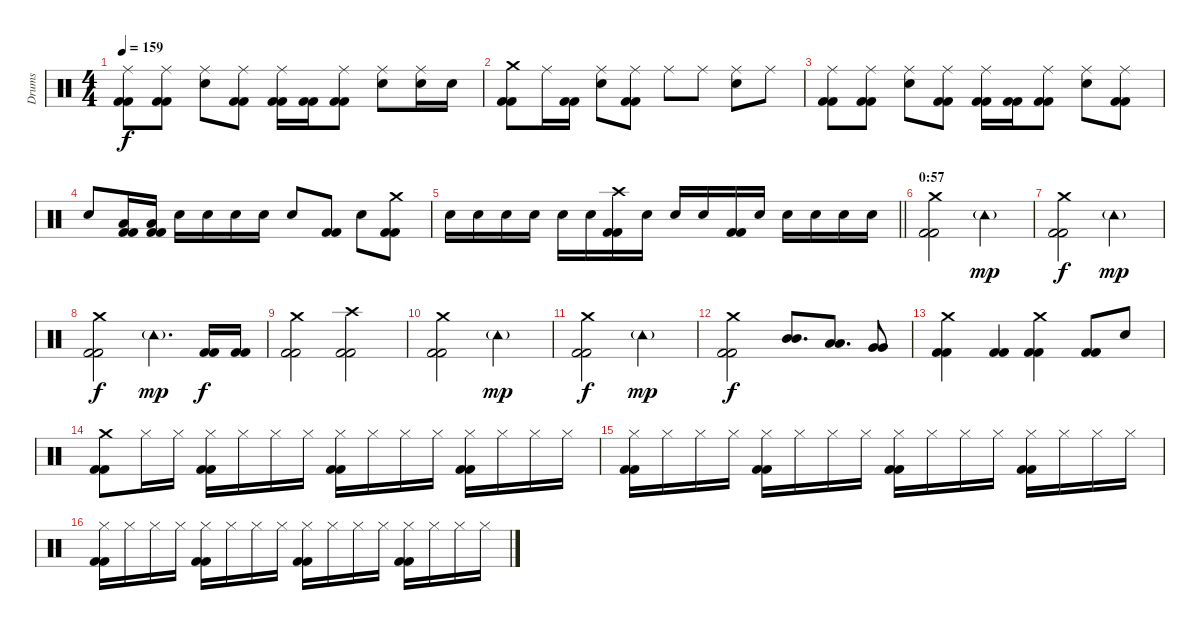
\track ("Drums" "Drums") {instrument percussion}
\staff {score}
\articulation defaults
\ts (4 4)
\tempo 159
\clef neutral
\ks c
("Ride (middle)" "Kick (hit) 2" "Kick (hit) 2").8{dy f} ("Ride (middle)" "Kick (hit) 2" "Kick (hit) 2").8 ("Ride (middle)" "Electric Snare (hit)").8 ("Ride (middle)" "Kick (hit) 2" "Kick (hit) 2").8 ("Ride (middle)" "Kick (hit) 2" "Kick (hit) 2").16 ("Kick (hit) 2" "Kick (hit) 2").16 ("Ride (middle)" "Kick (hit) 2" "Kick (hit) 2").8 ("Ride (middle)" "Electric Snare (hit)").8 ("Ride (middle)" "Electric Snare (hit)").16 "Electric Snare (hit)".16 |
("Crash medium (hit)" "Kick (hit) 2" "Kick (hit) 2").8 "Ride (middle)".16 ("Kick (hit) 2" "Kick (hit) 2").16 ("Ride (middle)" "Electric Snare (hit)").8 ("Ride (middle)" "Kick (hit) 2" "Kick (hit) 2").8 "Ride (middle)".8 "Ride (middle)".8 ("Ride (middle)" "Electric Snare (hit)").8 "Ride (middle)".8 |
("Ride (middle)" "Kick (hit) 2" "Kick (hit) 2").8 ("Ride (middle)" "Kick (hit) 2" "Kick (hit) 2").8 ("Ride (middle)" "Electric Snare (hit)").8 ("Ride (middle)" "Kick (hit) 2" "Kick (hit) 2").8 ("Ride (middle)" "Kick (hit) 2" "Kick (hit) 2").16 ("Kick (hit) 2" "Kick (hit) 2").16 ("Ride (middle)" "Kick (hit) 2" "Kick (hit) 2").8 ("Ride (middle)" "Electric Snare (hit)").8 ("Ride (middle)" "Kick (hit) 2" "Kick (hit) 2").8 |
"Electric Snare (hit)".8 ("Low Tom (hit)" "Kick (hit) 2" "Kick (hit) 2").16 ("Low Tom (hit)" "Kick (hit) 2" "Kick (hit) 2").16 "Electric Snare (hit)".16 "Electric Snare (hit)".16 "Electric Snare (hit)".16 "Electric Snare (hit)".16 "Electric Snare (hit)".8 ("Kick (hit) 2" "Kick (hit) 2").8 "Electric Snare (hit)".8 ("Crash medium (hit)" "Kick (hit) 2" "Kick (hit) 2").8 |
\barLineRight lightlight "Electric Snare (hit)".16 "Electric Snare (hit)".16 "Electric Snare (hit)".16 "Electric Snare (hit)".16 "Electric Snare (hit)".16 "Electric Snare (hit)".16
("Crash high (hit)" "Kick (hit) 2" "Kick (hit) 2").16 "Electric Snare (hit)".16 "Electric Snare (hit)".16 "Electric Snare (hit)".16 ("Kick (hit) 2" "Kick (hit) 2").16 "Electric Snare (hit)".16 "Electric Snare (hit)".16 "Electric Snare (hit)".16 "Electric Snare (hit)".16 "Electric Snare (hit)".16 |
\section ("" "0:57")
("Crash medium (hit)" "Kick (hit) 2" "Kick (hit) 2").2 "Tambourine (hit)"{g}.2{dy mp} |
("Crash medium (hit)" "Kick (hit) 2" "Kick (hit) 2").2{dy f} "Tambourine (hit)"{g}.2{dy mp} |
("Crash medium (hit)" "Kick (hit) 2" "Kick (hit) 2").2{dy f} "Tambourine (hit)"{g}.4{d dy mp} ("Kick (hit) 2" "Kick (hit) 2").16{dy f} ("Kick (hit) 2" "Kick (hit) 2").16 |
("Crash medium (hit)" "Kick (hit) 2" "Kick (hit) 2").2 ("Crash high (hit)" "Kick (hit) 2" "Kick (hit) 2").2 |
("Crash medium (hit)" "Kick (hit) 2" "Kick (hit) 2").2 "Tambourine (hit)"{g}.2{dy mp} |
("Crash medium (hit)" "Kick (hit) 2" "Kick (hit) 2").2{dy f} "Tambourine (hit)"{g}.2{dy mp} |
("Crash medium (hit)" "Kick (hit) 2" "Kick (hit) 2").2{dy f} ("Mid Tom (hit)" "Mid Tom (hit)").8{d} ("Low Tom (hit)" "Low Tom (hit)").8{d} ("Very Low Tom (hit)" "Very Low Tom (hit)").8 |
("Crash medium (hit)" "Kick (hit) 2" "Kick (hit) 2").4 ("Kick (hit) 2" "Kick (hit) 2").4 ("Crash medium (hit)" "Kick (hit) 2" "Kick (hit) 2").4 ("Kick (hit) 2" "Kick (hit) 2").8 "Electric Snare (hit)".8 |
("Crash medium (hit)" "Kick (hit) 2" "Kick (hit) 2").8 "Hi-Hat (closed)".16 "Hi-Hat (closed)".16 ("Hi-Hat (closed)" "Kick (hit) 2" "Kick (hit) 2").16 "Hi-Hat (closed)".16 "Hi-Hat (closed)".16 "Hi-Hat (closed)".16 ("Hi-Hat (closed)" "Kick (hit) 2" "Kick (hit) 2").16 "Hi-Hat (closed)".16 "Hi-Hat (closed)".16 "Hi-Hat (closed)".16 ("Hi-Hat (closed)" "Kick (hit) 2" "Kick (hit) 2").16 "Hi-Hat (closed)".16 "Hi-Hat (closed)".16 "Hi-Hat (closed)".16 |
("Hi-Hat (closed)" "Kick (hit) 2" "Kick (hit) 2").16 "Hi-Hat (closed)".16 "Hi-Hat (closed)".16 "Hi-Hat (closed)".16 ("Hi-Hat (closed)" "Kick (hit) 2" "Kick (hit) 2").16 "Hi-Hat (closed)".16 "Hi-Hat (closed)".16 "Hi-Hat (closed)".16 ("Hi-Hat (closed)" "Kick (hit) 2" "Kick (hit) 2").16 "Hi-Hat (closed)".16 "Hi-Hat (closed)".16 "Hi-Hat (closed)".16 ("Hi-Hat (closed)" "Kick (hit) 2" "Kick (hit) 2").16 "Hi-Hat (closed)".16 "Hi-Hat (closed)".16 "Hi-Hat (closed)".16 |
("Hi-Hat (closed)" "Kick (hit) 2" "Kick (hit) 2").16 "Hi-Hat (closed)".16 "Hi-Hat (closed)".16 "Hi-Hat (closed)".16 ("Hi-Hat (closed)" "Kick (hit) 2" "Kick (hit) 2").16 "Hi-Hat (closed)".16 "Hi-Hat (closed)".16 "Hi-Hat (closed)".16 ("Hi-Hat (closed)" "Kick (hit) 2" "Kick (hit) 2").16 "Hi-Hat (closed)".16 "Hi-Hat (closed)".16 "Hi-Hat (closed)".16 ("Hi-Hat (closed)" "Kick (hit) 2" "Kick (hit) 2").16 "Hi-Hat (closed)".16 "Hi-Hat (closed)".16 "Hi-Hat (closed)".16
